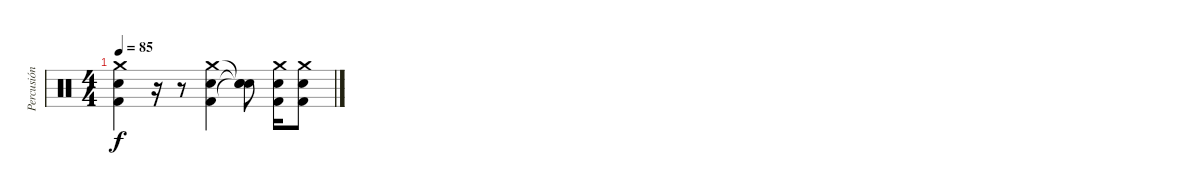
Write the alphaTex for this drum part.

\track ("Percusión" "Percusión") {instrument percussion}
\staff {score}
\articulation defaults
\ts (4 4)
\tempo 85
\clef neutral
\ks c
("Crash medium (hit)" "Electric Snare (hit)" "Kick (hit) 2").4{dy f} r.16 r.8 ("Crash medium (hit)" "Electric Snare (hit)" "Kick (hit) 2").4 ("Snare (hit)"{t} "Snare (hit)"{t} "Snare (hit)"{t}).8 ("Crash medium (hit)" "Electric Snare (hit)" "Kick (hit) 2").16 ("Crash medium (hit)" "Electric Snare (hit)" "Kick (hit) 2").8
